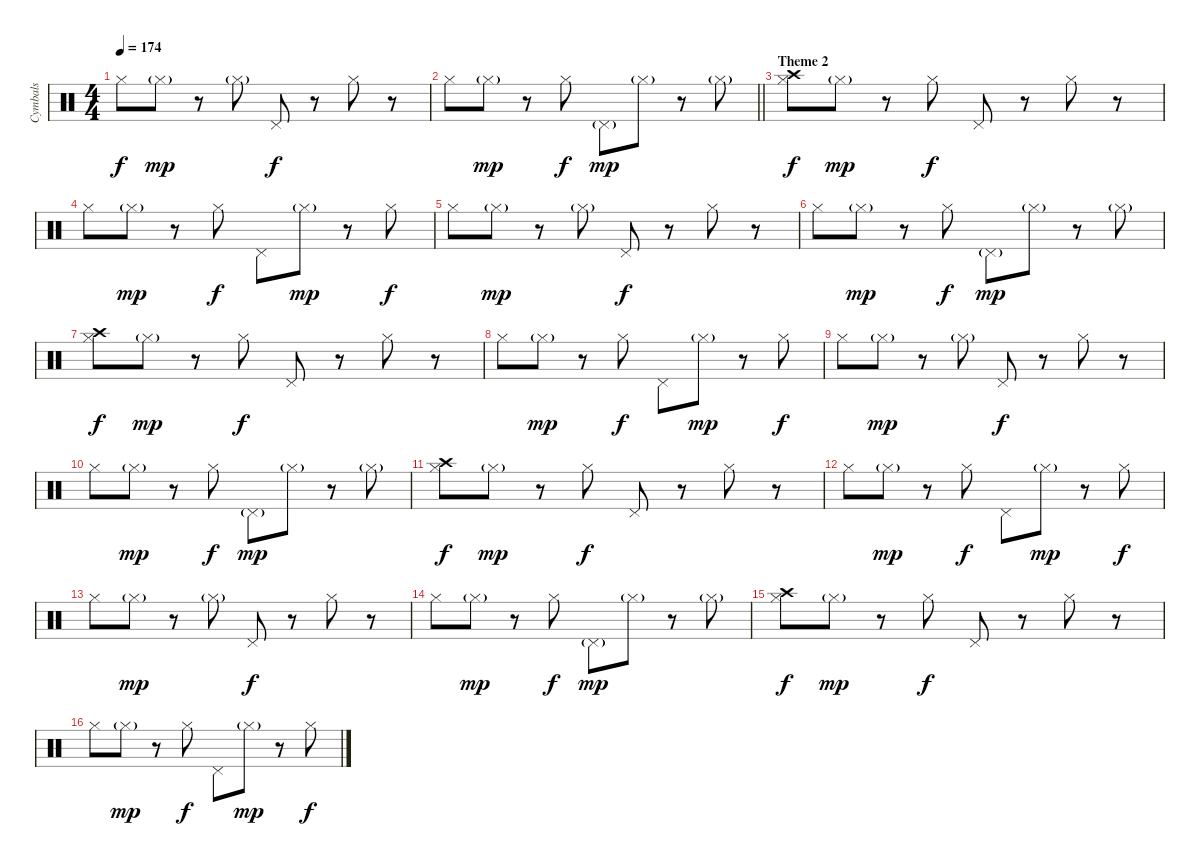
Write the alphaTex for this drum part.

\track ("Cymbals" "Cymbals") {instrument percussion}
\staff {score}
\articulation defaults
\ts (4 4)
\tempo 174
\clef neutral
\ks c "Hi-Hat (closed)".8{dy f} "Hi-Hat (closed)"{g}.8{dy mp}
r.8 "Hi-Hat (closed)"{g}.8 "Pedal Hi-Hat (hit)".8{dy f} r.8 "Hi-Hat (closed)".8 r.8 |
\barLineRight lightlight "Hi-Hat (closed)".8 "Hi-Hat (closed)"{g}.8{dy mp}
r.8 "Hi-Hat (closed)".8{dy f} "Pedal Hi-Hat (hit)"{g}.8{dy mp} "Hi-Hat (closed)"{g}.8 r.8 "Hi-Hat (closed)"{g}.8 |
\section ("" "Theme 2")
("Crash high (hit)" "Hi-Hat (closed)").8{dy f} "Hi-Hat (closed)"{g}.8{dy mp} r.8 "Hi-Hat (closed)".8{dy f} "Pedal Hi-Hat (hit)".8 r.8 "Hi-Hat (closed)".8 r.8 |
"Hi-Hat (closed)".8 "Hi-Hat (closed)"{g}.8{dy mp} r.8 "Hi-Hat (closed)".8{dy f} "Pedal Hi-Hat (hit)".8 "Hi-Hat (closed)"{g}.8{dy mp} r.8 "Hi-Hat (closed)".8{dy f} |
"Hi-Hat (closed)".8 "Hi-Hat (closed)"{g}.8{dy mp} r.8 "Hi-Hat (closed)"{g}.8 "Pedal Hi-Hat (hit)".8{dy f} r.8 "Hi-Hat (closed)".8 r.8 |
"Hi-Hat (closed)".8 "Hi-Hat (closed)"{g}.8{dy mp} r.8 "Hi-Hat (closed)".8{dy f} "Pedal Hi-Hat (hit)"{g}.8{dy mp} "Hi-Hat (closed)"{g}.8 r.8 "Hi-Hat (closed)"{g}.8 |
("Crash high (hit)" "Hi-Hat (closed)").8{dy f} "Hi-Hat (closed)"{g}.8{dy mp} r.8 "Hi-Hat (closed)".8{dy f} "Pedal Hi-Hat (hit)".8 r.8 "Hi-Hat (closed)".8 r.8 |
"Hi-Hat (closed)".8 "Hi-Hat (closed)"{g}.8{dy mp} r.8 "Hi-Hat (closed)".8{dy f} "Pedal Hi-Hat (hit)".8 "Hi-Hat (closed)"{g}.8{dy mp} r.8 "Hi-Hat (closed)".8{dy f} |
"Hi-Hat (closed)".8 "Hi-Hat (closed)"{g}.8{dy mp} r.8 "Hi-Hat (closed)"{g}.8 "Pedal Hi-Hat (hit)".8{dy f} r.8 "Hi-Hat (closed)".8 r.8 |
"Hi-Hat (closed)".8 "Hi-Hat (closed)"{g}.8{dy mp} r.8 "Hi-Hat (closed)".8{dy f} "Pedal Hi-Hat (hit)"{g}.8{dy mp} "Hi-Hat (closed)"{g}.8 r.8 "Hi-Hat (closed)"{g}.8 |
("Crash high (hit)" "Hi-Hat (closed)").8{dy f} "Hi-Hat (closed)"{g}.8{dy mp} r.8 "Hi-Hat (closed)".8{dy f} "Pedal Hi-Hat (hit)".8 r.8 "Hi-Hat (closed)".8 r.8 |
"Hi-Hat (closed)".8 "Hi-Hat (closed)"{g}.8{dy mp} r.8 "Hi-Hat (closed)".8{dy f} "Pedal Hi-Hat (hit)".8 "Hi-Hat (closed)"{g}.8{dy mp} r.8 "Hi-Hat (closed)".8{dy f} |
"Hi-Hat (closed)".8 "Hi-Hat (closed)"{g}.8{dy mp} r.8 "Hi-Hat (closed)"{g}.8 "Pedal Hi-Hat (hit)".8{dy f} r.8 "Hi-Hat (closed)".8 r.8 |
"Hi-Hat (closed)".8 "Hi-Hat (closed)"{g}.8{dy mp} r.8 "Hi-Hat (closed)".8{dy f} "Pedal Hi-Hat (hit)"{g}.8{dy mp} "Hi-Hat (closed)"{g}.8 r.8 "Hi-Hat (closed)"{g}.8 |
("Crash high (hit)" "Hi-Hat (closed)").8{dy f} "Hi-Hat (closed)"{g}.8{dy mp} r.8 "Hi-Hat (closed)".8{dy f} "Pedal Hi-Hat (hit)".8 r.8 "Hi-Hat (closed)".8 r.8 |
"Hi-Hat (closed)".8 "Hi-Hat (closed)"{g}.8{dy mp} r.8 "Hi-Hat (closed)".8{dy f} "Pedal Hi-Hat (hit)".8 "Hi-Hat (closed)"{g}.8{dy mp} r.8 "Hi-Hat (closed)".8{dy f}
